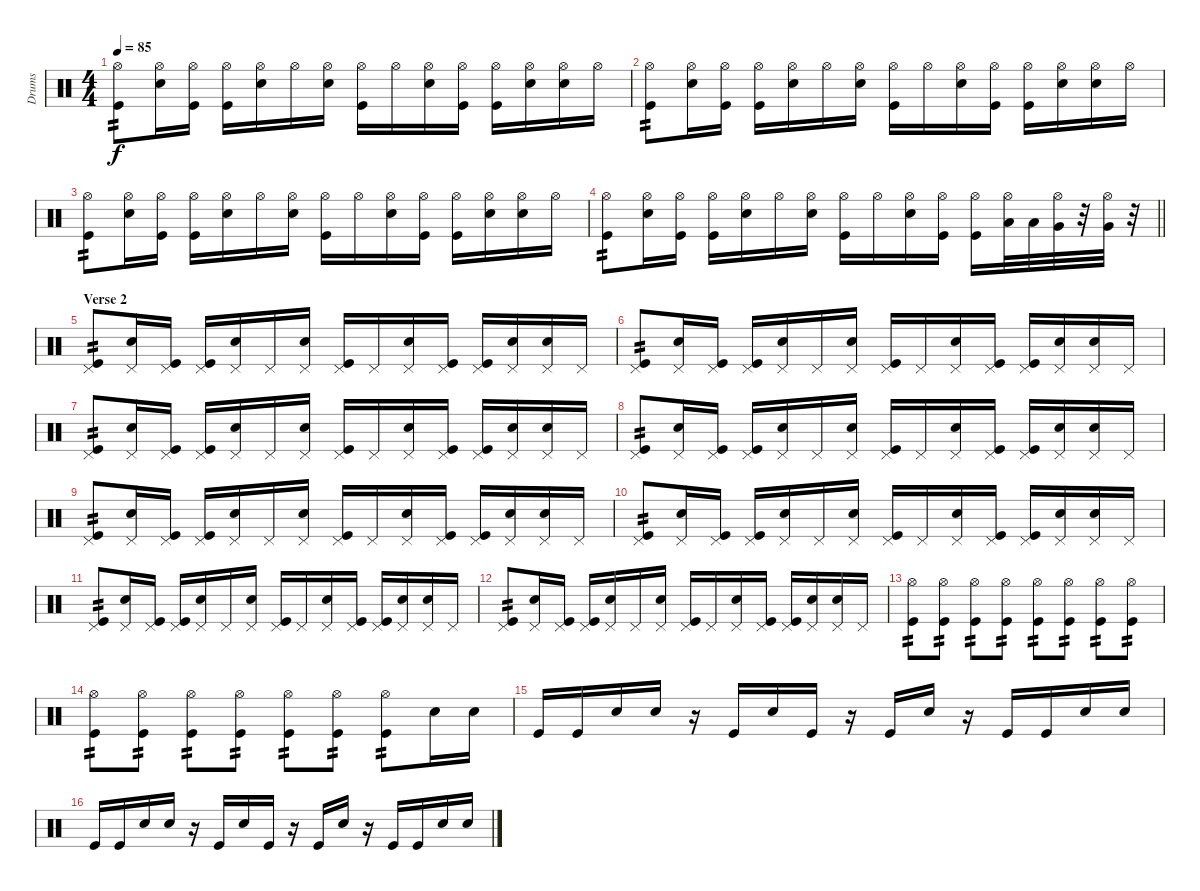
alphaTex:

\track ("Drums" "Drums") {instrument percussion}
\staff {score}
\articulation defaults
\ts (4 4)
\tempo 85
\clef neutral
\ks c
("Hi-Hat (open)" "Kick (hit)").8{tp 2 dy f} ("Hi-Hat (open)" "Snare (hit) 2").16 ("Hi-Hat (open)" "Kick (hit)").16 ("Hi-Hat (open)" "Kick (hit)").16 ("Hi-Hat (open)" "Snare (hit) 2").16 "Hi-Hat (open)".16 ("Hi-Hat (open)" "Snare (hit) 2").16 ("Hi-Hat (open)" "Kick (hit)").16 "Hi-Hat (open)".16 ("Hi-Hat (open)" "Snare (hit) 2").16 ("Hi-Hat (open)" "Kick (hit)").16 ("Hi-Hat (open)" "Kick (hit)").16 ("Hi-Hat (open)" "Snare (hit) 2").16 ("Hi-Hat (open)" "Snare (hit) 2").16 "Hi-Hat (open)".16 |
("Hi-Hat (open)" "Kick (hit)").8{tp 2} ("Hi-Hat (open)" "Snare (hit) 2").16 ("Hi-Hat (open)" "Kick (hit)").16 ("Hi-Hat (open)" "Kick (hit)").16 ("Hi-Hat (open)" "Snare (hit) 2").16 "Hi-Hat (open)".16 ("Hi-Hat (open)" "Snare (hit) 2").16 ("Hi-Hat (open)" "Kick (hit)").16 "Hi-Hat (open)".16 ("Hi-Hat (open)" "Snare (hit) 2").16 ("Hi-Hat (open)" "Kick (hit)").16 ("Hi-Hat (open)" "Kick (hit)").16 ("Hi-Hat (open)" "Snare (hit) 2").16 ("Hi-Hat (open)" "Snare (hit) 2").16 "Hi-Hat (open)".16 |
("Hi-Hat (open)" "Kick (hit)").8{tp 2} ("Hi-Hat (open)" "Snare (hit) 2").16 ("Hi-Hat (open)" "Kick (hit)").16 ("Hi-Hat (open)" "Kick (hit)").16 ("Hi-Hat (open)" "Snare (hit) 2").16 "Hi-Hat (open)".16 ("Hi-Hat (open)" "Snare (hit) 2").16 ("Hi-Hat (open)" "Kick (hit)").16 "Hi-Hat (open)".16 ("Hi-Hat (open)" "Snare (hit) 2").16 ("Hi-Hat (open)" "Kick (hit)").16 ("Hi-Hat (open)" "Kick (hit)").16 ("Hi-Hat (open)" "Snare (hit) 2").16 ("Hi-Hat (open)" "Snare (hit) 2").16 "Hi-Hat (open)".16 |
\barLineRight lightlight
("Hi-Hat (open)" "Kick (hit)").8{tp 2} ("Hi-Hat (open)" "Snare (hit) 2").16 ("Hi-Hat (open)" "Kick (hit)").16 ("Hi-Hat (open)" "Kick (hit)").16 ("Hi-Hat (open)" "Snare (hit) 2").16 "Hi-Hat (open)".16 ("Hi-Hat (open)" "Snare (hit) 2").16 ("Hi-Hat (open)" "Kick (hit)").16 "Hi-Hat (open)".16 ("Hi-Hat (open)" "Snare (hit) 2").16 ("Hi-Hat (open)" "Kick (hit)").16 ("Hi-Hat (open)" "Kick (hit)").16 ("Hi-Hat (open)" "Low Tom (hit)").32 "Low Tom (hit)".32 ("Hi-Hat (open)" "Very Low Tom (hit)").32 r.32 ("Hi-Hat (open)" "Very Low Tom (hit)").32 r.32 |
\section ("" "Verse 2")
("Pedal Hi-Hat (hit)" "Kick (hit)").8{tp 2} ("Pedal Hi-Hat (hit)" "Snare (hit) 2").16 ("Pedal Hi-Hat (hit)" "Kick (hit)").16 ("Pedal Hi-Hat (hit)" "Kick (hit)").16 ("Pedal Hi-Hat (hit)" "Snare (hit) 2").16 "Pedal Hi-Hat (hit)".16 ("Pedal Hi-Hat (hit)" "Snare (hit) 2").16 ("Pedal Hi-Hat (hit)" "Kick (hit)").16 "Pedal Hi-Hat (hit)".16 ("Pedal Hi-Hat (hit)" "Snare (hit) 2").16 ("Pedal Hi-Hat (hit)" "Kick (hit)").16 ("Pedal Hi-Hat (hit)" "Kick (hit)").16 ("Pedal Hi-Hat (hit)" "Snare (hit) 2").16 ("Pedal Hi-Hat (hit)" "Snare (hit) 2").16 "Pedal Hi-Hat (hit)".16 |
("Pedal Hi-Hat (hit)" "Kick (hit)").8{tp 2} ("Pedal Hi-Hat (hit)" "Snare (hit) 2").16 ("Pedal Hi-Hat (hit)" "Kick (hit)").16 ("Pedal Hi-Hat (hit)" "Kick (hit)").16 ("Pedal Hi-Hat (hit)" "Snare (hit) 2").16 "Pedal Hi-Hat (hit)".16 ("Pedal Hi-Hat (hit)" "Snare (hit) 2").16 ("Pedal Hi-Hat (hit)" "Kick (hit)").16 "Pedal Hi-Hat (hit)".16 ("Pedal Hi-Hat (hit)" "Snare (hit) 2").16 ("Pedal Hi-Hat (hit)" "Kick (hit)").16 ("Pedal Hi-Hat (hit)" "Kick (hit)").16 ("Pedal Hi-Hat (hit)" "Snare (hit) 2").16 ("Pedal Hi-Hat (hit)" "Snare (hit) 2").16 "Pedal Hi-Hat (hit)".16 |
("Pedal Hi-Hat (hit)" "Kick (hit)").8{tp 2} ("Pedal Hi-Hat (hit)" "Snare (hit) 2").16 ("Pedal Hi-Hat (hit)" "Kick (hit)").16 ("Pedal Hi-Hat (hit)" "Kick (hit)").16 ("Pedal Hi-Hat (hit)" "Snare (hit) 2").16 "Pedal Hi-Hat (hit)".16 ("Pedal Hi-Hat (hit)" "Snare (hit) 2").16 ("Pedal Hi-Hat (hit)" "Kick (hit)").16 "Pedal Hi-Hat (hit)".16 ("Pedal Hi-Hat (hit)" "Snare (hit) 2").16 ("Pedal Hi-Hat (hit)" "Kick (hit)").16 ("Pedal Hi-Hat (hit)" "Kick (hit)").16 ("Pedal Hi-Hat (hit)" "Snare (hit) 2").16 ("Pedal Hi-Hat (hit)" "Snare (hit) 2").16 "Pedal Hi-Hat (hit)".16 |
("Pedal Hi-Hat (hit)" "Kick (hit)").8{tp 2} ("Pedal Hi-Hat (hit)" "Snare (hit) 2").16 ("Pedal Hi-Hat (hit)" "Kick (hit)").16 ("Pedal Hi-Hat (hit)" "Kick (hit)").16 ("Pedal Hi-Hat (hit)" "Snare (hit) 2").16 "Pedal Hi-Hat (hit)".16 ("Pedal Hi-Hat (hit)" "Snare (hit) 2").16 ("Pedal Hi-Hat (hit)" "Kick (hit)").16 "Pedal Hi-Hat (hit)".16 ("Pedal Hi-Hat (hit)" "Snare (hit) 2").16 ("Pedal Hi-Hat (hit)" "Kick (hit)").16 ("Pedal Hi-Hat (hit)" "Kick (hit)").16 ("Pedal Hi-Hat (hit)" "Snare (hit) 2").16 ("Pedal Hi-Hat (hit)" "Snare (hit) 2").16 "Pedal Hi-Hat (hit)".16 |
("Pedal Hi-Hat (hit)" "Kick (hit)").8{tp 2} ("Pedal Hi-Hat (hit)" "Snare (hit) 2").16 ("Pedal Hi-Hat (hit)" "Kick (hit)").16 ("Pedal Hi-Hat (hit)" "Kick (hit)").16 ("Pedal Hi-Hat (hit)" "Snare (hit) 2").16 "Pedal Hi-Hat (hit)".16 ("Pedal Hi-Hat (hit)" "Snare (hit) 2").16 ("Pedal Hi-Hat (hit)" "Kick (hit)").16 "Pedal Hi-Hat (hit)".16 ("Pedal Hi-Hat (hit)" "Snare (hit) 2").16 ("Pedal Hi-Hat (hit)" "Kick (hit)").16 ("Pedal Hi-Hat (hit)" "Kick (hit)").16 ("Pedal Hi-Hat (hit)" "Snare (hit) 2").16 ("Pedal Hi-Hat (hit)" "Snare (hit) 2").16 "Pedal Hi-Hat (hit)".16 |
("Pedal Hi-Hat (hit)" "Kick (hit)").8{tp 2} ("Pedal Hi-Hat (hit)" "Snare (hit) 2").16 ("Pedal Hi-Hat (hit)" "Kick (hit)").16 ("Pedal Hi-Hat (hit)" "Kick (hit)").16 ("Pedal Hi-Hat (hit)" "Snare (hit) 2").16 "Pedal Hi-Hat (hit)".16 ("Pedal Hi-Hat (hit)" "Snare (hit) 2").16 ("Pedal Hi-Hat (hit)" "Kick (hit)").16 "Pedal Hi-Hat (hit)".16 ("Pedal Hi-Hat (hit)" "Snare (hit) 2").16 ("Pedal Hi-Hat (hit)" "Kick (hit)").16 ("Pedal Hi-Hat (hit)" "Kick (hit)").16 ("Pedal Hi-Hat (hit)" "Snare (hit) 2").16 ("Pedal Hi-Hat (hit)" "Snare (hit) 2").16 "Pedal Hi-Hat (hit)".16 |
("Pedal Hi-Hat (hit)" "Kick (hit)").8{tp 2} ("Pedal Hi-Hat (hit)" "Snare (hit) 2").16 ("Pedal Hi-Hat (hit)" "Kick (hit)").16 ("Pedal Hi-Hat (hit)" "Kick (hit)").16 ("Pedal Hi-Hat (hit)" "Snare (hit) 2").16 "Pedal Hi-Hat (hit)".16 ("Pedal Hi-Hat (hit)" "Snare (hit) 2").16 ("Pedal Hi-Hat (hit)" "Kick (hit)").16 "Pedal Hi-Hat (hit)".16 ("Pedal Hi-Hat (hit)" "Snare (hit) 2").16 ("Pedal Hi-Hat (hit)" "Kick (hit)").16 ("Pedal Hi-Hat (hit)" "Kick (hit)").16 ("Pedal Hi-Hat (hit)" "Snare (hit) 2").16 ("Pedal Hi-Hat (hit)" "Snare (hit) 2").16 "Pedal Hi-Hat (hit)".16 |
("Pedal Hi-Hat (hit)" "Kick (hit)").8{tp 2} ("Pedal Hi-Hat (hit)" "Snare (hit) 2").16 ("Pedal Hi-Hat (hit)" "Kick (hit)").16 ("Pedal Hi-Hat (hit)" "Kick (hit)").16 ("Pedal Hi-Hat (hit)" "Snare (hit) 2").16 "Pedal Hi-Hat (hit)".16 ("Pedal Hi-Hat (hit)" "Snare (hit) 2").16 ("Pedal Hi-Hat (hit)" "Kick (hit)").16 "Pedal Hi-Hat (hit)".16 ("Pedal Hi-Hat (hit)" "Snare (hit) 2").16 ("Pedal Hi-Hat (hit)" "Kick (hit)").16 ("Pedal Hi-Hat (hit)" "Kick (hit)").16 ("Pedal Hi-Hat (hit)" "Snare (hit) 2").16 ("Pedal Hi-Hat (hit)" "Snare (hit) 2").16 "Pedal Hi-Hat (hit)".16 |
("Hi-Hat (open)" "Kick (hit)").8{tp 2} ("Hi-Hat (open)" "Kick (hit)").8{tp 2} ("Hi-Hat (open)" "Kick (hit)").8{tp 2} ("Hi-Hat (open)" "Kick (hit)").8{tp 2} ("Hi-Hat (open)" "Kick (hit)").8{tp 2} ("Hi-Hat (open)" "Kick (hit)").8{tp 2} ("Hi-Hat (open)" "Kick (hit)").8{tp 2} ("Hi-Hat (open)" "Kick (hit)").8{tp 2} |
("Hi-Hat (open)" "Kick (hit)").8{tp 2} ("Hi-Hat (open)" "Kick (hit)").8{tp 2} ("Hi-Hat (open)" "Kick (hit)").8{tp 2} ("Hi-Hat (open)" "Kick (hit)").8{tp 2} ("Hi-Hat (open)" "Kick (hit)").8{tp 2} ("Hi-Hat (open)" "Kick (hit)").8{tp 2} ("Hi-Hat (open)" "Kick (hit)").8{tp 2} "Snare (hit) 2".16 "Snare (hit) 2".16 |
"Kick (hit)".16 "Kick (hit)".16 "Snare (hit) 2".16 "Snare (hit) 2".16 r.16 "Kick (hit)".16 "Snare (hit) 2".16 "Kick (hit)".16 r.16 "Kick (hit)".16 "Snare (hit) 2".16 r.16 "Kick (hit)".16 "Kick (hit)".16 "Snare (hit) 2".16 "Snare (hit) 2".16 |
"Kick (hit)".16 "Kick (hit)".16 "Snare (hit) 2".16 "Snare (hit) 2".16 r.16 "Kick (hit)".16 "Snare (hit) 2".16 "Kick (hit)".16 r.16 "Kick (hit)".16 "Snare (hit) 2".16 r.16 "Kick (hit)".16 "Kick (hit)".16 "Snare (hit) 2".16 "Snare (hit) 2".16
